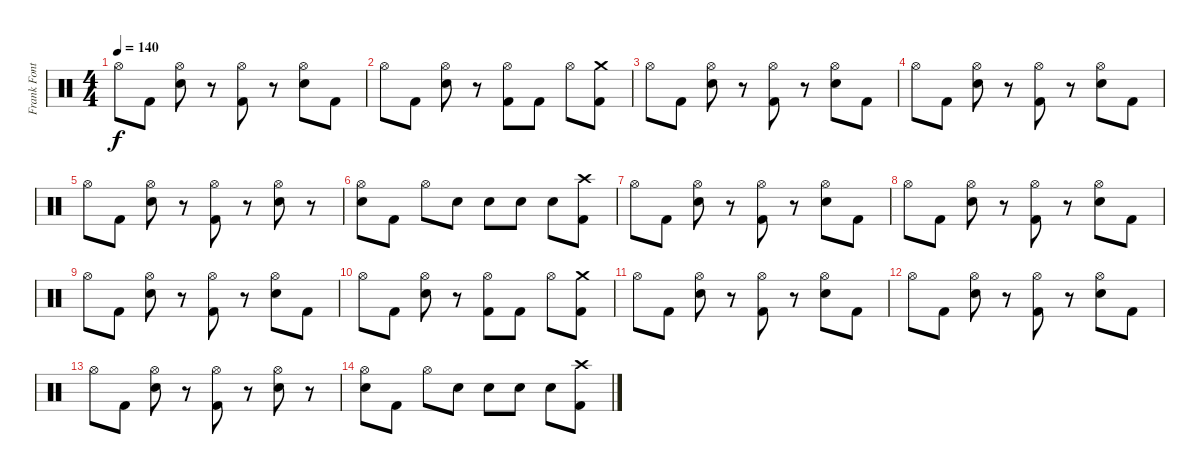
\track ("Frank Fontsere" "Frank Font") {instrument percussion}
\staff {score}
\articulation defaults
\ts (4 4)
\tempo 140
\clef neutral
\ks c "Hi-Hat (open)".8{dy f} "Kick (hit) 2".8
("Hi-Hat (open)" "Electric Snare (hit)").8 r.8 ("Hi-Hat (open)" "Kick (hit) 2").8 r.8 ("Hi-Hat (open)" "Electric Snare (hit)").8 "Kick (hit) 2".8 |
"Hi-Hat (open)".8 "Kick (hit) 2".8 ("Hi-Hat (open)" "Electric Snare (hit)").8 r.8 ("Hi-Hat (open)" "Kick (hit) 2").8 "Kick (hit) 2".8 "Hi-Hat (open)".8 ("Crash medium (hit)" "Kick (hit) 2").8 |
"Hi-Hat (open)".8 "Kick (hit) 2".8 ("Hi-Hat (open)" "Electric Snare (hit)").8 r.8 ("Hi-Hat (open)" "Kick (hit) 2").8 r.8 ("Hi-Hat (open)" "Electric Snare (hit)").8 "Kick (hit) 2".8 |
"Hi-Hat (open)".8 "Kick (hit) 2".8 ("Hi-Hat (open)" "Electric Snare (hit)").8 r.8 ("Hi-Hat (open)" "Kick (hit) 2").8 r.8 ("Hi-Hat (open)" "Electric Snare (hit)").8 "Kick (hit) 2".8 |
"Hi-Hat (open)".8 "Kick (hit) 2".8 ("Hi-Hat (open)" "Electric Snare (hit)").8 r.8 ("Hi-Hat (open)" "Kick (hit) 2").8 r.8 ("Hi-Hat (open)" "Electric Snare (hit)").8 r.8 |
("Hi-Hat (open)" "Electric Snare (hit)").8 "Kick (hit) 2".8 "Hi-Hat (open)".8 "Electric Snare (hit)".8 "Electric Snare (hit)".8 "Electric Snare (hit)".8 "Electric Snare (hit)".8 ("Crash high (hit)" "Kick (hit) 2").8 |
"Hi-Hat (open)".8 "Kick (hit) 2".8 ("Hi-Hat (open)" "Electric Snare (hit)").8 r.8 ("Hi-Hat (open)" "Kick (hit) 2").8 r.8 ("Hi-Hat (open)" "Electric Snare (hit)").8 "Kick (hit) 2".8 |
"Hi-Hat (open)".8 "Kick (hit) 2".8 ("Hi-Hat (open)" "Electric Snare (hit)").8 r.8 ("Hi-Hat (open)" "Kick (hit) 2").8 r.8 ("Hi-Hat (open)" "Electric Snare (hit)").8 "Kick (hit) 2".8 |
"Hi-Hat (open)".8 "Kick (hit) 2".8 ("Hi-Hat (open)" "Electric Snare (hit)").8 r.8 ("Hi-Hat (open)" "Kick (hit) 2").8 r.8 ("Hi-Hat (open)" "Electric Snare (hit)").8 "Kick (hit) 2".8 |
"Hi-Hat (open)".8 "Kick (hit) 2".8 ("Hi-Hat (open)" "Electric Snare (hit)").8 r.8 ("Hi-Hat (open)" "Kick (hit) 2").8 "Kick (hit) 2".8 "Hi-Hat (open)".8 ("Crash medium (hit)" "Kick (hit) 2").8 |
"Hi-Hat (open)".8 "Kick (hit) 2".8 ("Hi-Hat (open)" "Electric Snare (hit)").8 r.8 ("Hi-Hat (open)" "Kick (hit) 2").8 r.8 ("Hi-Hat (open)" "Electric Snare (hit)").8 "Kick (hit) 2".8 |
"Hi-Hat (open)".8 "Kick (hit) 2".8 ("Hi-Hat (open)" "Electric Snare (hit)").8 r.8 ("Hi-Hat (open)" "Kick (hit) 2").8 r.8 ("Hi-Hat (open)" "Electric Snare (hit)").8 "Kick (hit) 2".8 |
"Hi-Hat (open)".8 "Kick (hit) 2".8 ("Hi-Hat (open)" "Electric Snare (hit)").8 r.8 ("Hi-Hat (open)" "Kick (hit) 2").8 r.8 ("Hi-Hat (open)" "Electric Snare (hit)").8 r.8 |
("Hi-Hat (open)" "Electric Snare (hit)").8 "Kick (hit) 2".8 "Hi-Hat (open)".8 "Electric Snare (hit)".8 "Electric Snare (hit)".8 "Electric Snare (hit)".8 "Electric Snare (hit)".8 ("Crash high (hit)" "Kick (hit) 2").8
